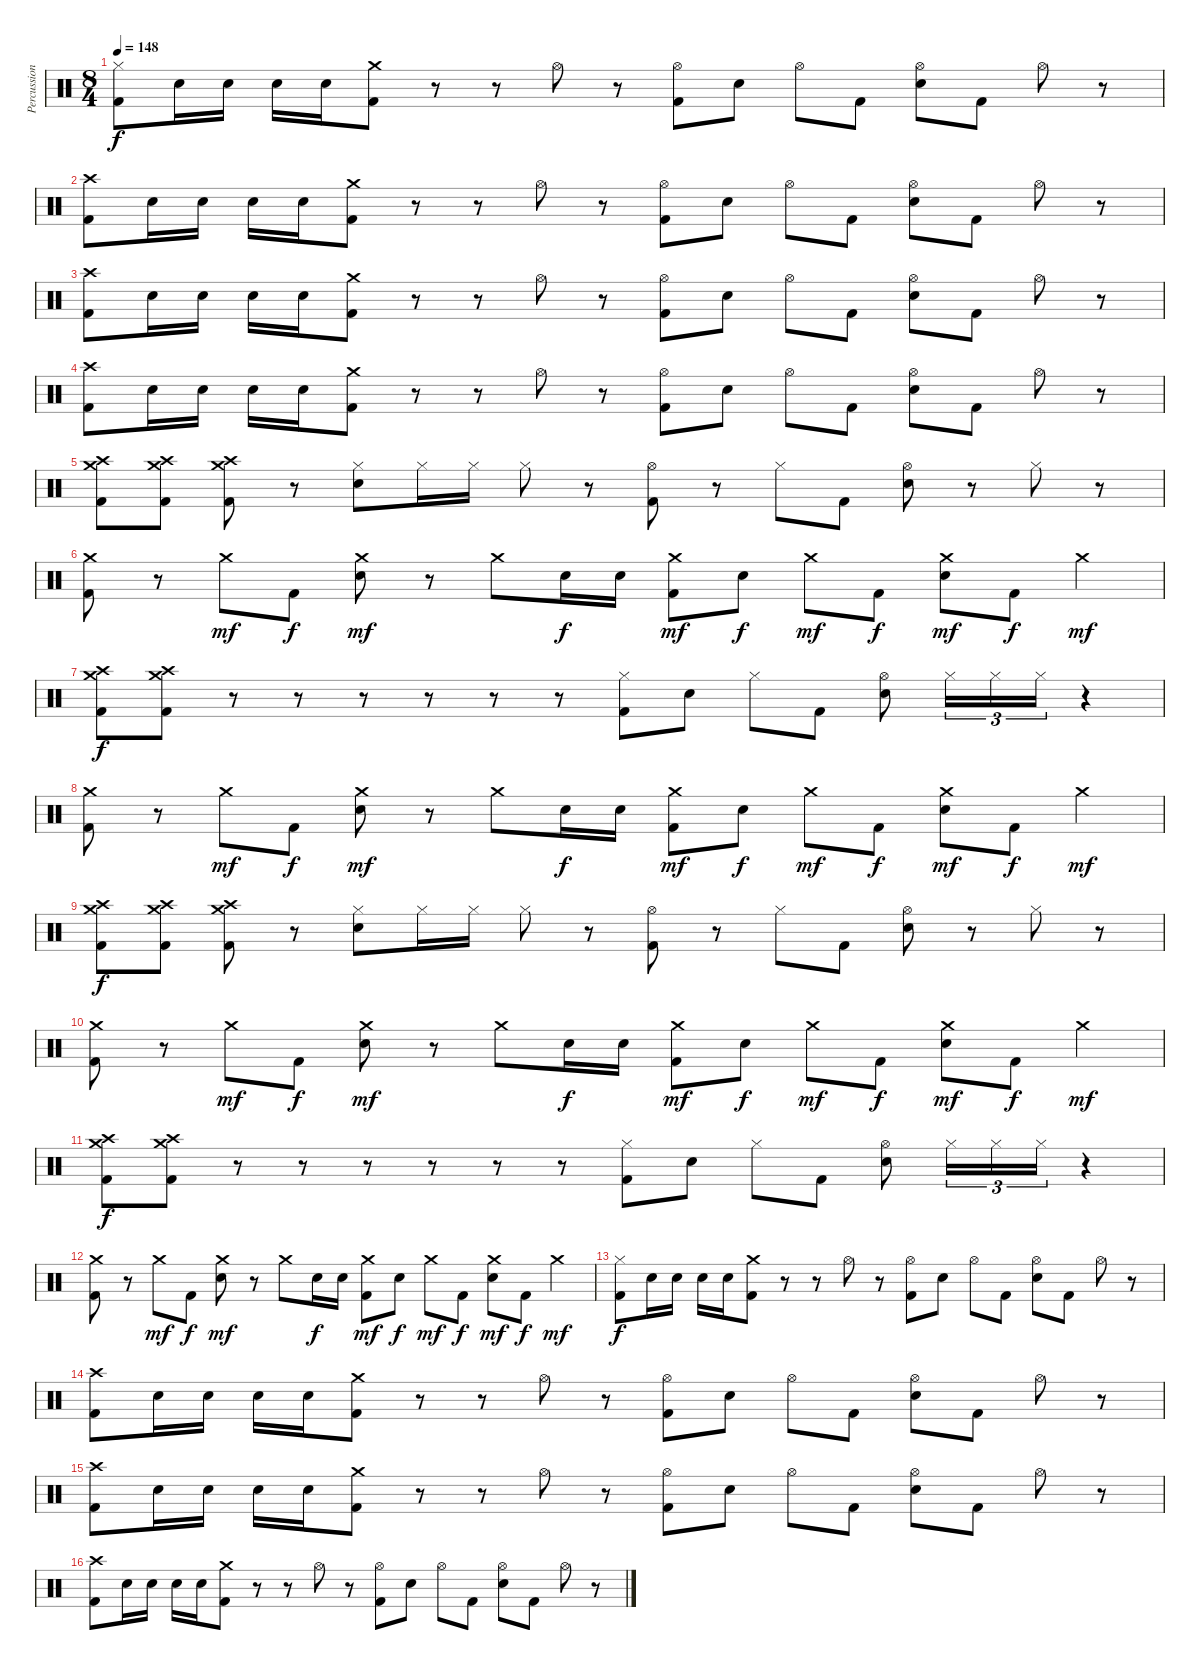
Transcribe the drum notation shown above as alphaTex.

\track ("Percussion" "Percussion") {instrument percussion}
\staff {score}
\articulation defaults
\ts (8 4)
\tempo 148
\clef neutral
\ks c
("Hi-Hat (closed)" "Kick (hit) 2").8{dy f} "Electric Snare (hit)".16 "Electric Snare (hit)".16 "Electric Snare (hit)".16 "Electric Snare (hit)".16 ("Crash medium (hit)" "Kick (hit) 2").8 r.8 r.8 "Hi-Hat (open)".8 r.8 ("Hi-Hat (open)" "Kick (hit) 2").8 "Electric Snare (hit)".8 "Hi-Hat (open)".8 "Kick (hit) 2".8 ("Electric Snare (hit)" "Hi-Hat (open)").8 "Kick (hit) 2".8 "Hi-Hat (open)".8 r.8 |
("Crash high (hit)" "Kick (hit) 2").8 "Electric Snare (hit)".16 "Electric Snare (hit)".16 "Electric Snare (hit)".16 "Electric Snare (hit)".16 ("Crash medium (hit)" "Kick (hit) 2").8 r.8 r.8 "Hi-Hat (open)".8 r.8 ("Hi-Hat (open)" "Kick (hit) 2").8 "Electric Snare (hit)".8 "Hi-Hat (open)".8 "Kick (hit) 2".8 ("Electric Snare (hit)" "Hi-Hat (open)").8 "Kick (hit) 2".8 "Hi-Hat (open)".8 r.8 |
("Crash high (hit)" "Kick (hit) 2").8 "Electric Snare (hit)".16 "Electric Snare (hit)".16 "Electric Snare (hit)".16 "Electric Snare (hit)".16 ("Crash medium (hit)" "Kick (hit) 2").8 r.8 r.8 "Hi-Hat (open)".8 r.8 ("Hi-Hat (open)" "Kick (hit) 2").8 "Electric Snare (hit)".8 "Hi-Hat (open)".8 "Kick (hit) 2".8 ("Electric Snare (hit)" "Hi-Hat (open)").8 "Kick (hit) 2".8 "Hi-Hat (open)".8 r.8 |
("Crash high (hit)" "Kick (hit) 2").8 "Electric Snare (hit)".16 "Electric Snare (hit)".16 "Electric Snare (hit)".16 "Electric Snare (hit)".16 ("Crash medium (hit)" "Kick (hit) 2").8 r.8 r.8 "Hi-Hat (open)".8 r.8 ("Hi-Hat (open)" "Kick (hit) 2").8 "Electric Snare (hit)".8 "Hi-Hat (open)".8 "Kick (hit) 2".8 ("Electric Snare (hit)" "Hi-Hat (open)").8 "Kick (hit) 2".8 "Hi-Hat (open)".8 r.8 |
("Crash high (hit)" "Crash medium (hit)" "Kick (hit) 2").8 ("Crash high (hit)" "Crash medium (hit)" "Kick (hit) 2").8 ("Crash high (hit)" "Crash medium (hit)" "Kick (hit) 2").8 r.8 ("Electric Snare (hit)" "Hi-Hat (closed)").8 "Hi-Hat (closed)".16 "Hi-Hat (closed)".16 "Hi-Hat (closed)".8 r.8 ("Hi-Hat (open)" "Kick (hit) 2").8 r.8 "Hi-Hat (closed)".8 "Kick (hit) 2".8 ("Electric Snare (hit)" "Hi-Hat (open)").8 r.8 "Hi-Hat (closed)".8 r.8 |
("Crash medium (hit)" "Kick (hit) 2").8 r.8 "Crash medium (hit)".8{dy mf} "Kick (hit) 2".8{dy f} ("Electric Snare (hit)" "Crash medium (hit)").8{dy mf} r.8 "Crash medium (hit)".8 "Electric Snare (hit)".16{dy f} "Electric Snare (hit)".16 ("Crash medium (hit)" "Kick (hit) 2").8{dy mf} "Electric Snare (hit)".8{dy f} "Crash medium (hit)".8{dy mf} "Kick (hit) 2".8{dy f} ("Electric Snare (hit)" "Crash medium (hit)").8{dy mf} "Kick (hit) 2".8{dy f} "Crash medium (hit)".4{dy mf} |
("Crash high (hit)" "Crash medium (hit)" "Kick (hit) 2").8{dy f} ("Crash high (hit)" "Crash medium (hit)" "Kick (hit) 2").8 r.8 r.8 r.8 r.8 r.8 r.8 ("Hi-Hat (closed)" "Kick (hit) 2").8 "Electric Snare (hit)".8 "Hi-Hat (closed)".8 "Kick (hit) 2".8 ("Electric Snare (hit)" "Hi-Hat (open)").8 "Hi-Hat (closed)".16{tu (3 2)} "Hi-Hat (closed)".16{tu (3 2)} "Hi-Hat (closed)".16{tu (3 2)} r.4 |
("Crash medium (hit)" "Kick (hit) 2").8 r.8 "Crash medium (hit)".8{dy mf} "Kick (hit) 2".8{dy f} ("Electric Snare (hit)" "Crash medium (hit)").8{dy mf} r.8 "Crash medium (hit)".8 "Electric Snare (hit)".16{dy f} "Electric Snare (hit)".16 ("Crash medium (hit)" "Kick (hit) 2").8{dy mf} "Electric Snare (hit)".8{dy f} "Crash medium (hit)".8{dy mf} "Kick (hit) 2".8{dy f} ("Electric Snare (hit)" "Crash medium (hit)").8{dy mf} "Kick (hit) 2".8{dy f} "Crash medium (hit)".4{dy mf} |
("Crash high (hit)" "Crash medium (hit)" "Kick (hit) 2").8{dy f} ("Crash high (hit)" "Crash medium (hit)" "Kick (hit) 2").8 ("Crash high (hit)" "Crash medium (hit)" "Kick (hit) 2").8 r.8 ("Electric Snare (hit)" "Hi-Hat (closed)").8 "Hi-Hat (closed)".16 "Hi-Hat (closed)".16 "Hi-Hat (closed)".8 r.8 ("Hi-Hat (open)" "Kick (hit) 2").8 r.8 "Hi-Hat (closed)".8 "Kick (hit) 2".8 ("Electric Snare (hit)" "Hi-Hat (open)").8 r.8 "Hi-Hat (closed)".8 r.8 |
("Crash medium (hit)" "Kick (hit) 2").8 r.8 "Crash medium (hit)".8{dy mf} "Kick (hit) 2".8{dy f} ("Electric Snare (hit)" "Crash medium (hit)").8{dy mf} r.8 "Crash medium (hit)".8 "Electric Snare (hit)".16{dy f} "Electric Snare (hit)".16 ("Crash medium (hit)" "Kick (hit) 2").8{dy mf} "Electric Snare (hit)".8{dy f} "Crash medium (hit)".8{dy mf} "Kick (hit) 2".8{dy f} ("Electric Snare (hit)" "Crash medium (hit)").8{dy mf} "Kick (hit) 2".8{dy f} "Crash medium (hit)".4{dy mf} |
("Crash high (hit)" "Crash medium (hit)" "Kick (hit) 2").8{dy f} ("Crash high (hit)" "Crash medium (hit)" "Kick (hit) 2").8 r.8 r.8 r.8 r.8 r.8 r.8 ("Hi-Hat (closed)" "Kick (hit) 2").8 "Electric Snare (hit)".8 "Hi-Hat (closed)".8 "Kick (hit) 2".8 ("Electric Snare (hit)" "Hi-Hat (open)").8 "Hi-Hat (closed)".16{tu (3 2)} "Hi-Hat (closed)".16{tu (3 2)} "Hi-Hat (closed)".16{tu (3 2)} r.4 |
("Crash medium (hit)" "Kick (hit) 2").8 r.8 "Crash medium (hit)".8{dy mf} "Kick (hit) 2".8{dy f} ("Electric Snare (hit)" "Crash medium (hit)").8{dy mf} r.8 "Crash medium (hit)".8 "Electric Snare (hit)".16{dy f} "Electric Snare (hit)".16 ("Crash medium (hit)" "Kick (hit) 2").8{dy mf} "Electric Snare (hit)".8{dy f} "Crash medium (hit)".8{dy mf} "Kick (hit) 2".8{dy f} ("Electric Snare (hit)" "Crash medium (hit)").8{dy mf} "Kick (hit) 2".8{dy f} "Crash medium (hit)".4{dy mf} |
("Hi-Hat (closed)" "Kick (hit) 2").8{dy f} "Electric Snare (hit)".16 "Electric Snare (hit)".16 "Electric Snare (hit)".16 "Electric Snare (hit)".16 ("Crash medium (hit)" "Kick (hit) 2").8 r.8 r.8 "Hi-Hat (open)".8 r.8 ("Hi-Hat (open)" "Kick (hit) 2").8 "Electric Snare (hit)".8 "Hi-Hat (open)".8 "Kick (hit) 2".8 ("Electric Snare (hit)" "Hi-Hat (open)").8 "Kick (hit) 2".8 "Hi-Hat (open)".8 r.8 |
("Crash high (hit)" "Kick (hit) 2").8 "Electric Snare (hit)".16 "Electric Snare (hit)".16 "Electric Snare (hit)".16 "Electric Snare (hit)".16 ("Crash medium (hit)" "Kick (hit) 2").8 r.8 r.8 "Hi-Hat (open)".8 r.8 ("Hi-Hat (open)" "Kick (hit) 2").8 "Electric Snare (hit)".8 "Hi-Hat (open)".8 "Kick (hit) 2".8 ("Electric Snare (hit)" "Hi-Hat (open)").8 "Kick (hit) 2".8 "Hi-Hat (open)".8 r.8 |
("Crash high (hit)" "Kick (hit) 2").8 "Electric Snare (hit)".16 "Electric Snare (hit)".16 "Electric Snare (hit)".16 "Electric Snare (hit)".16 ("Crash medium (hit)" "Kick (hit) 2").8 r.8 r.8 "Hi-Hat (open)".8 r.8 ("Hi-Hat (open)" "Kick (hit) 2").8 "Electric Snare (hit)".8 "Hi-Hat (open)".8 "Kick (hit) 2".8 ("Electric Snare (hit)" "Hi-Hat (open)").8 "Kick (hit) 2".8 "Hi-Hat (open)".8 r.8 |
("Crash high (hit)" "Kick (hit) 2").8 "Electric Snare (hit)".16 "Electric Snare (hit)".16 "Electric Snare (hit)".16 "Electric Snare (hit)".16 ("Crash medium (hit)" "Kick (hit) 2").8 r.8 r.8 "Hi-Hat (open)".8 r.8 ("Hi-Hat (open)" "Kick (hit) 2").8 "Electric Snare (hit)".8 "Hi-Hat (open)".8 "Kick (hit) 2".8 ("Electric Snare (hit)" "Hi-Hat (open)").8 "Kick (hit) 2".8 "Hi-Hat (open)".8 r.8
